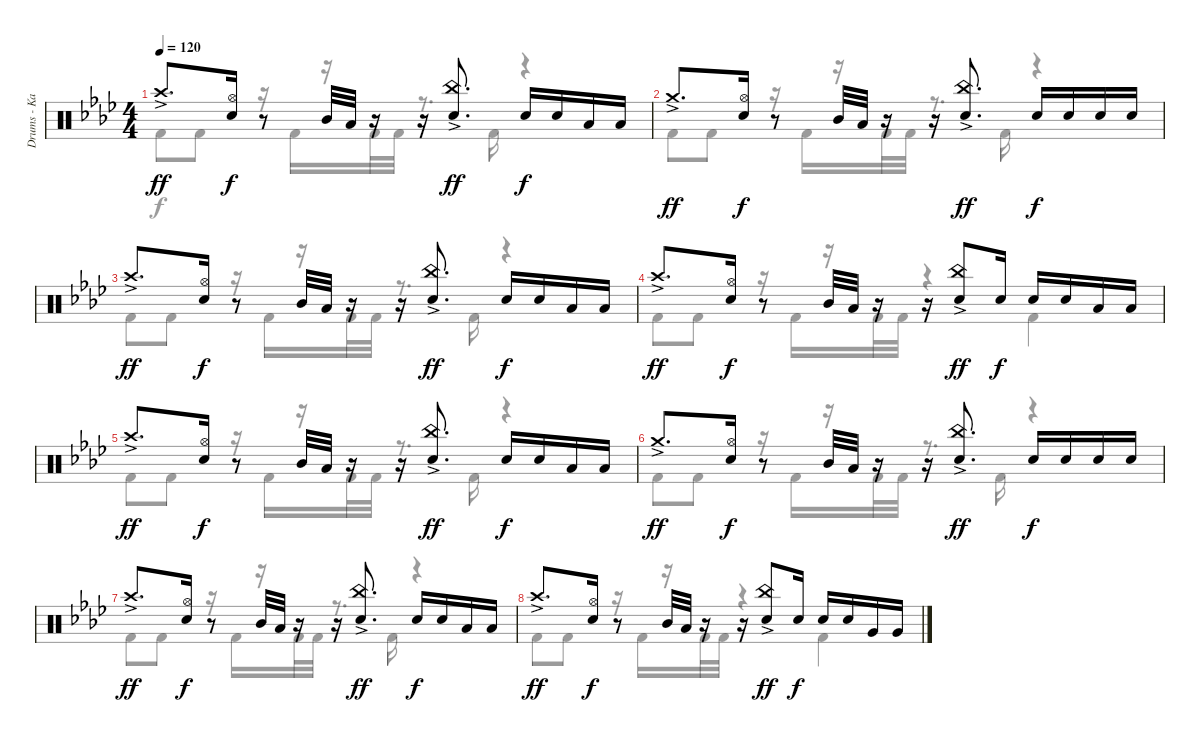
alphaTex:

\track ("Drums - Kai" "Drums - Ka") {instrument percussion}
\staff {score}
\articulation defaults
\voice
\ts (4 4)
\tempo 120
\clef neutral
\ks ab "Crash high (hit)"{ac}.8{d dy ff}
("Hi-Hat (open)" "Snare (hit) 2").16{dy f} r.8 "Mid Tom (hit)".32 "Low Tom (hit)".32 r.16 r.16 ("China (hit)"{ac} "Snare (hit) 2").8{d dy ff} "Snare (hit) 2".16{dy f} "Snare (hit) 2".16 "Low Tom (hit)".16 "Low Tom (hit)".16 |
"Crash medium (hit)"{ac}.8{d dy ff} ("Hi-Hat (open)" "Snare (hit) 2").16{dy f} r.8 "Mid Tom (hit)".32 "Low Tom (hit)".32 r.16 r.16 ("China (hit)"{ac} "Snare (hit) 2").8{d dy ff} "Snare (hit) 2".16{dy f} "Snare (hit) 2".16 "Snare (hit) 2".16 "Snare (hit) 2".16 |
"Crash high (hit)"{ac}.8{d dy ff} ("Hi-Hat (open)" "Snare (hit) 2").16{dy f} r.8 "Mid Tom (hit)".32 "Low Tom (hit)".32 r.16 r.16 ("China (hit)"{ac} "Snare (hit) 2").8{d dy ff} "Snare (hit) 2".16{dy f} "Snare (hit) 2".16 "Low Tom (hit)".16 "Low Tom (hit)".16 |
"Crash high (hit)"{ac}.8{d dy ff} ("Hi-Hat (open)" "Snare (hit) 2").16{dy f} r.8 "Mid Tom (hit)".32 "Low Tom (hit)".32 r.16 r.16 ("China (hit)"{ac} "Snare (hit) 2").8{dy ff} "Snare (hit) 2".16{dy f} "Snare (hit) 2".16 "Snare (hit) 2".16 "Low Tom (hit)".16 "Low Tom (hit)".16 |
"Crash high (hit)"{ac}.8{d dy ff} ("Hi-Hat (open)" "Snare (hit) 2").16{dy f} r.8 "Mid Tom (hit)".32 "Low Tom (hit)".32 r.16 r.16 ("China (hit)"{ac} "Snare (hit) 2").8{d dy ff} "Snare (hit) 2".16{dy f} "Snare (hit) 2".16 "Low Tom (hit)".16 "Low Tom (hit)".16 |
"Crash medium (hit)"{ac}.8{d dy ff} ("Hi-Hat (open)" "Snare (hit) 2").16{dy f} r.8 "Mid Tom (hit)".32 "Low Tom (hit)".32 r.16 r.16 ("China (hit)"{ac} "Snare (hit) 2").8{d dy ff} "Snare (hit) 2".16{dy f} "Snare (hit) 2".16 "Snare (hit) 2".16 "Snare (hit) 2".16 |
"Crash high (hit)"{ac}.8{d dy ff} ("Hi-Hat (open)" "Snare (hit) 2").16{dy f} r.8 "Mid Tom (hit)".32 "Low Tom (hit)".32 r.16 r.16 ("China (hit)"{ac} "Snare (hit) 2").8{d dy ff} "Snare (hit) 2".16{dy f} "Snare (hit) 2".16 "Low Tom (hit)".16 "Low Tom (hit)".16 |
"Crash high (hit)"{ac}.8{d dy ff} ("Hi-Hat (open)" "Snare (hit) 2").16{dy f} r.8 "Mid Tom (hit)".32 "Low Tom (hit)".32 r.16 r.16 ("China (hit)"{ac} "Snare (hit) 2").8{dy ff} "Snare (hit) 2".16{dy f} "Snare (hit) 2".16 "Snare (hit) 2".16 "Very Low Tom (hit)".16 "Very Low Tom (hit)".16
\voice
\clef neutral
\ottava regular
\simile none
\ks ab "Kick (hit) 2".8{dy f} "Kick (hit) 2".8
r.16 "Kick (hit) 2".16 r.16 "Kick (hit) 2".32 "Kick (hit) 2".32 r.8{d} "Kick (hit) 2".16 r.4 |
"Kick (hit) 2".8 "Kick (hit) 2".8 r.16 "Kick (hit) 2".16 r.16 "Kick (hit) 2".32 "Kick (hit) 2".32 r.8{d} "Kick (hit) 2".16 r.4 |
"Kick (hit) 2".8 "Kick (hit) 2".8 r.16 "Kick (hit) 2".16 r.16 "Kick (hit) 2".32 "Kick (hit) 2".32 r.8{d} "Kick (hit) 2".16 r.4 |
"Kick (hit) 2".8 "Kick (hit) 2".8 r.16 "Kick (hit) 2".16 r.16 "Kick (hit) 2".32 "Kick (hit) 2".32 r.4 "Kick (hit) 2".4 |
"Kick (hit) 2".8 "Kick (hit) 2".8 r.16 "Kick (hit) 2".16 r.16 "Kick (hit) 2".32 "Kick (hit) 2".32 r.8{d} "Kick (hit) 2".16 r.4 |
"Kick (hit) 2".8 "Kick (hit) 2".8 r.16 "Kick (hit) 2".16 r.16 "Kick (hit) 2".32 "Kick (hit) 2".32 r.8{d} "Kick (hit) 2".16 r.4 |
"Kick (hit) 2".8 "Kick (hit) 2".8 r.16 "Kick (hit) 2".16 r.16 "Kick (hit) 2".32 "Kick (hit) 2".32 r.8{d} "Kick (hit) 2".16 r.4 |
"Kick (hit) 2".8 "Kick (hit) 2".8 r.16 "Kick (hit) 2".16 r.16 "Kick (hit) 2".32 "Kick (hit) 2".32 r.4 "Kick (hit) 2".4
